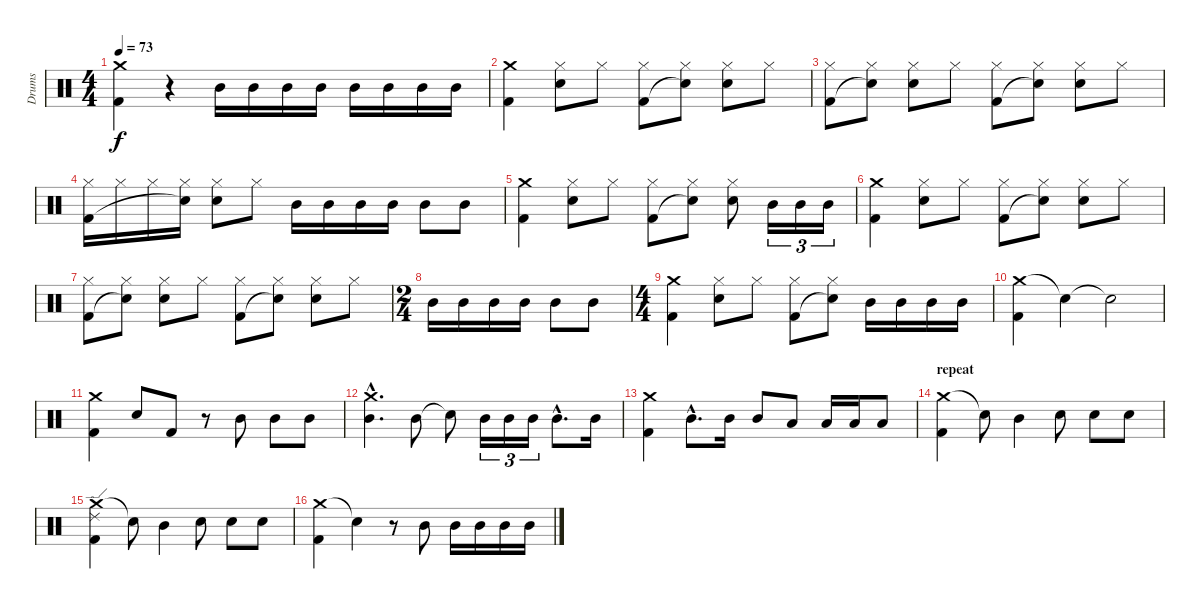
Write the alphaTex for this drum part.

\track ("Drums" "Drums") {instrument percussion}
\staff {score}
\articulation defaults
\ts (4 4)
\tempo 73
\clef neutral
\ks c
("Crash medium (hit)" "Kick (hit) 2").4{dy f} r.4 "Mid Tom (hit)".16 "Mid Tom (hit)".16 "Mid Tom (hit)".16 "Mid Tom (hit)".16 "Mid Tom (hit)".16 "Mid Tom (hit)".16 "Mid Tom (hit)".16 "Mid Tom (hit)".16 |
("Crash medium (hit)" "Kick (hit) 2").4 ("Hi-Hat (closed)" "Snare (hit) 2").8 "Hi-Hat (closed)".8 ("Hi-Hat (closed)" "Kick (hit) 2").8 ("Hi-Hat (closed)" "Snare (hit)"{t}).8 ("Hi-Hat (closed)" "Snare (hit) 2").8 "Hi-Hat (closed)".8 |
("Hi-Hat (closed)" "Kick (hit) 2").8 ("Hi-Hat (closed)" "Snare (hit)"{t}).8 ("Hi-Hat (closed)" "Snare (hit) 2").8 "Hi-Hat (closed)".8 ("Hi-Hat (closed)" "Kick (hit) 2").8 ("Hi-Hat (closed)" "Snare (hit)"{t}).8 ("Hi-Hat (closed)" "Snare (hit) 2").8 "Hi-Hat (closed)".8 |
("Hi-Hat (closed)" "Kick (hit) 2").16 "Hi-Hat (closed)".16 "Hi-Hat (closed)".16 ("Hi-Hat (closed)" "Snare (hit)"{t}).16 ("Hi-Hat (closed)" "Snare (hit) 2").8 "Hi-Hat (closed)".8 "Mid Tom (hit)".16 "Mid Tom (hit)".16 "Mid Tom (hit)".16 "Mid Tom (hit)".16 "Mid Tom (hit)".8 "Mid Tom (hit)".8 |
("Crash medium (hit)" "Kick (hit) 2").4 ("Hi-Hat (closed)" "Snare (hit) 2").8 "Hi-Hat (closed)".8 ("Hi-Hat (closed)" "Kick (hit) 2").8 ("Hi-Hat (closed)" "Snare (hit)"{t}).8 ("Hi-Hat (closed)" "Snare (hit) 2").8 "Mid Tom (hit)".16{tu (3 2)} "Mid Tom (hit)".16{tu (3 2)} "Mid Tom (hit)".16{tu (3 2)} |
("Crash medium (hit)" "Kick (hit) 2").4 ("Hi-Hat (closed)" "Snare (hit) 2").8 "Hi-Hat (closed)".8 ("Hi-Hat (closed)" "Kick (hit) 2").8 ("Hi-Hat (closed)" "Snare (hit)"{t}).8 ("Hi-Hat (closed)" "Snare (hit) 2").8 "Hi-Hat (closed)".8 |
("Hi-Hat (closed)" "Kick (hit) 2").8 ("Hi-Hat (closed)" "Snare (hit)"{t}).8 ("Hi-Hat (closed)" "Snare (hit) 2").8 "Hi-Hat (closed)".8 ("Hi-Hat (closed)" "Kick (hit) 2").8 ("Hi-Hat (closed)" "Snare (hit)"{t}).8 ("Hi-Hat (closed)" "Snare (hit) 2").8 "Hi-Hat (closed)".8 |
\ts (2 4)
"Mid Tom (hit)".16 "Mid Tom (hit)".16 "Mid Tom (hit)".16 "Mid Tom (hit)".16 "Mid Tom (hit)".8 "Mid Tom (hit)".8 |
\ts (4 4)
("Crash medium (hit)" "Kick (hit) 2").4 ("Hi-Hat (closed)" "Snare (hit) 2").8 "Hi-Hat (closed)".8 ("Hi-Hat (closed)" "Kick (hit) 2").8 ("Hi-Hat (closed)" "Snare (hit)"{t}).8 "Mid Tom (hit)".16 "Mid Tom (hit)".16 "Mid Tom (hit)".16 "Mid Tom (hit)".16 |
("Crash medium (hit)" "Kick (hit) 2").4 "Snare (hit)"{t}.4 "Snare (hit)"{t}.2 |
("Crash medium (hit)" "Kick (hit) 2").4 "Snare (hit) 2".8 "Kick (hit) 2".8 r.8 "Mid Tom (hit)".8 "Mid Tom (hit)".8 "Mid Tom (hit)".8 |
("Crash medium (hit)"{hac} "Mid Tom (hit)"{hac}).4{d} "Mid Tom (hit)".8 "Snare (hit)"{t}.8 "Mid Tom (hit)".16{tu (3 2)} "Mid Tom (hit)".16{tu (3 2)} "Mid Tom (hit)".16{tu (3 2)} "Mid Tom (hit)"{hac}.8{d} "Mid Tom (hit)".16 |
("Crash medium (hit)" "Kick (hit) 2").4 "Mid Tom (hit)"{hac}.8{d} "Mid Tom (hit)".16 "Mid Tom (hit)".8 "Low Tom (hit)".8 "Low Tom (hit)".16 "Low Tom (hit)".16 "Low Tom (hit)".8 |
\section ("" "repeat")
("Crash medium (hit)" "Kick (hit) 2").4 "Snare (hit)"{t}.8 "Mid Tom (hit)".4 "Snare (hit) 2".8 "Snare (hit) 2".8 "Snare (hit) 2".8 |
("Crash medium (hit)" "Ride (edge) 2" "Kick (hit) 2").4 "Snare (hit)"{t}.8 "Mid Tom (hit)".4 "Snare (hit) 2".8 "Snare (hit) 2".8 "Snare (hit) 2".8 |
("Crash medium (hit)" "Kick (hit) 2").4 "Snare (hit)"{t}.4 r.8 "Mid Tom (hit)".8 "Mid Tom (hit)".16 "Mid Tom (hit)".16 "Mid Tom (hit)".16 "Mid Tom (hit)".16
